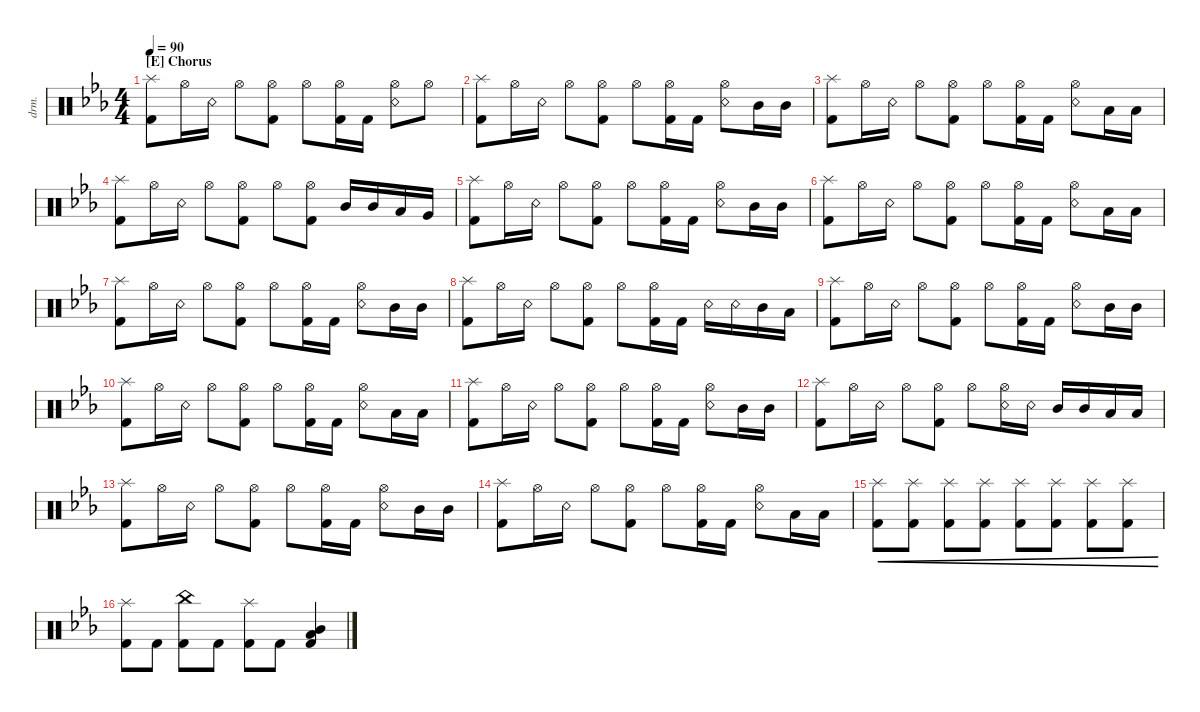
\defaultSystemsLayout 4
\hideDynamics
\bracketExtendMode nobrackets
\otherSystemsTrackNameOrientation horizontal
\track ("Drumkit" "drm.") {instrument percussion}
\staff {score}
\articulation defaults
\ts (4 4)
\section ("E" "Chorus")
\tempo 90
\clef neutral
\ks cminor
("Splash (hit)"{acc forcenatural} "Kick (hit) 2"{acc forcenatural}).8{dy ff beam Down} "Hi-Hat (open)"{acc forcenatural}.16{beam Down} "Snare (rim shot)"{acc forcenatural}.16{beam Down} "Hi-Hat (open)"{acc forcenatural}.8{beam Down} ("Hi-Hat (open)"{acc forcenatural} "Kick (hit) 2"{acc forcenatural}).8{beam Down} "Hi-Hat (open)"{acc forcenatural}.8{beam Down} ("Hi-Hat (open)"{acc forcenatural} "Kick (hit) 2"{acc forcenatural}).16{beam Down} "Kick (hit) 2"{acc forcenatural}.16{beam Down} ("Hi-Hat (open)"{acc forcenatural} "Snare (rim shot)"{acc forcenatural}).8{beam Down} "Hi-Hat (open)"{acc forcenatural}.8{beam Down} |
("Splash (hit)"{acc forcenatural} "Kick (hit) 2"{acc forcenatural}).8{beam Down} "Hi-Hat (open)"{acc forcenatural}.16{beam Down} "Snare (rim shot)"{acc forcenatural}.16{beam Down} "Hi-Hat (open)"{acc forcenatural}.8{beam Down} ("Hi-Hat (open)"{acc forcenatural} "Kick (hit) 2"{acc forcenatural}).8{beam Down} "Hi-Hat (open)"{acc forcenatural}.8{beam Down} ("Hi-Hat (open)"{acc forcenatural} "Kick (hit) 2"{acc forcenatural}).16{beam Down} "Kick (hit) 2"{acc forcenatural}.16{beam Down} ("Hi-Hat (open)"{acc forcenatural} "Snare (rim shot)"{acc forcenatural}).8{beam Down} "Mid Tom (hit)"{acc forcenatural}.16{beam Down} "Mid Tom (hit)"{acc forcenatural}.16{beam Down} |
("Splash (hit)"{acc forcenatural} "Kick (hit) 2"{acc forcenatural}).8{beam Down} "Hi-Hat (open)"{acc forcenatural}.16{beam Down} "Snare (rim shot)"{acc forcenatural}.16{beam Down} "Hi-Hat (open)"{acc forcenatural}.8{beam Down} ("Hi-Hat (open)"{acc forcenatural} "Kick (hit) 2"{acc forcenatural}).8{beam Down} "Hi-Hat (open)"{acc forcenatural}.8{beam Down} ("Hi-Hat (open)"{acc forcenatural} "Kick (hit) 2"{acc forcenatural}).16{beam Down} "Kick (hit) 2"{acc forcenatural}.16{beam Down} ("Hi-Hat (open)"{acc forcenatural} "Snare (rim shot)"{acc forcenatural}).8{beam Down} "Low Tom (hit)"{acc forcenatural}.16{beam Down} "Low Tom (hit)"{acc forcenatural}.16{beam Down} |
("Splash (hit)"{acc forcenatural} "Kick (hit) 2"{acc forcenatural}).8{beam Down} "Hi-Hat (open)"{acc forcenatural}.16{beam Down} "Snare (rim shot)"{acc forcenatural}.16{beam Down} "Hi-Hat (open)"{acc forcenatural}.8{beam Down} ("Hi-Hat (open)"{acc forcenatural} "Kick (hit) 2"{acc forcenatural}).8{beam Down} "Hi-Hat (open)"{acc forcenatural}.8{beam Down} ("Hi-Hat (open)"{acc forcenatural} "Kick (hit) 2"{acc forcenatural}).8{beam Down} "Mid Tom (hit)"{acc forcenatural}.16{beam Up} "Mid Tom (hit)"{acc forcenatural}.16{beam Up} "Low Tom (hit)"{acc forcenatural}.16{beam Up} "Very Low Tom (hit)"{acc forcenatural}.16{beam Up} |
("Splash (hit)"{acc forcenatural} "Kick (hit) 2"{acc forcenatural}).8{beam Down} "Hi-Hat (open)"{acc forcenatural}.16{beam Down} "Snare (rim shot)"{acc forcenatural}.16{beam Down} "Hi-Hat (open)"{acc forcenatural}.8{beam Down} ("Hi-Hat (open)"{acc forcenatural} "Kick (hit) 2"{acc forcenatural}).8{beam Down} "Hi-Hat (open)"{acc forcenatural}.8{beam Down} ("Hi-Hat (open)"{acc forcenatural} "Kick (hit) 2"{acc forcenatural}).16{beam Down} "Kick (hit) 2"{acc forcenatural}.16{beam Down} ("Hi-Hat (open)"{acc forcenatural} "Snare (rim shot)"{acc forcenatural}).8{beam Down} "Mid Tom (hit)"{acc forcenatural}.16{beam Down} "Mid Tom (hit)"{acc forcenatural}.16{beam Down} |
("Splash (hit)"{acc forcenatural} "Kick (hit) 2"{acc forcenatural}).8{beam Down} "Hi-Hat (open)"{acc forcenatural}.16{beam Down} "Snare (rim shot)"{acc forcenatural}.16{beam Down} "Hi-Hat (open)"{acc forcenatural}.8{beam Down} ("Hi-Hat (open)"{acc forcenatural} "Kick (hit) 2"{acc forcenatural}).8{beam Down} "Hi-Hat (open)"{acc forcenatural}.8{beam Down} ("Hi-Hat (open)"{acc forcenatural} "Kick (hit) 2"{acc forcenatural}).16{beam Down} "Kick (hit) 2"{acc forcenatural}.16{beam Down} ("Hi-Hat (open)"{acc forcenatural} "Snare (rim shot)"{acc forcenatural}).8{beam Down} "Low Tom (hit)"{acc forcenatural}.16{beam Down} "Low Tom (hit)"{acc forcenatural}.16{beam Down} |
("Splash (hit)"{acc forcenatural} "Kick (hit) 2"{acc forcenatural}).8{beam Down} "Hi-Hat (open)"{acc forcenatural}.16{beam Down} "Snare (rim shot)"{acc forcenatural}.16{beam Down} "Hi-Hat (open)"{acc forcenatural}.8{beam Down} ("Hi-Hat (open)"{acc forcenatural} "Kick (hit) 2"{acc forcenatural}).8{beam Down} "Hi-Hat (open)"{acc forcenatural}.8{beam Down} ("Hi-Hat (open)"{acc forcenatural} "Kick (hit) 2"{acc forcenatural}).16{beam Down} "Kick (hit) 2"{acc forcenatural}.16{beam Down} ("Hi-Hat (open)"{acc forcenatural} "Snare (rim shot)"{acc forcenatural}).8{beam Down} "Mid Tom (hit)"{acc forcenatural}.16{beam Down} "Mid Tom (hit)"{acc forcenatural}.16{beam Down} |
("Splash (hit)"{acc forcenatural} "Kick (hit) 2"{acc forcenatural}).8{beam Down} "Hi-Hat (open)"{acc forcenatural}.16{beam Down} "Snare (rim shot)"{acc forcenatural}.16{beam Down} "Hi-Hat (open)"{acc forcenatural}.8{beam Down} ("Hi-Hat (open)"{acc forcenatural} "Kick (hit) 2"{acc forcenatural}).8{beam Down} "Hi-Hat (open)"{acc forcenatural}.8{beam Down} ("Hi-Hat (open)"{acc forcenatural} "Kick (hit) 2"{acc forcenatural}).16{beam Down} "Kick (hit) 2"{acc forcenatural}.16{beam Down} "Snare (rim shot)"{acc forcenatural}.16{beam Down} "Snare (rim shot)"{acc forcenatural}.16{beam Down} "Mid Tom (hit)"{acc forcenatural}.16{beam Down} "Low Tom (hit)"{acc forcenatural}.16{beam Down} |
("Splash (hit)"{acc forcenatural} "Kick (hit) 2"{acc forcenatural}).8{beam Down} "Hi-Hat (open)"{acc forcenatural}.16{beam Down} "Snare (rim shot)"{acc forcenatural}.16{beam Down} "Hi-Hat (open)"{acc forcenatural}.8{beam Down} ("Hi-Hat (open)"{acc forcenatural} "Kick (hit) 2"{acc forcenatural}).8{beam Down} "Hi-Hat (open)"{acc forcenatural}.8{beam Down} ("Hi-Hat (open)"{acc forcenatural} "Kick (hit) 2"{acc forcenatural}).16{beam Down} "Kick (hit) 2"{acc forcenatural}.16{beam Down} ("Hi-Hat (open)"{acc forcenatural} "Snare (rim shot)"{acc forcenatural}).8{beam Down} "Mid Tom (hit)"{acc forcenatural}.16{beam Down} "Mid Tom (hit)"{acc forcenatural}.16{beam Down} |
("Splash (hit)"{acc forcenatural} "Kick (hit) 2"{acc forcenatural}).8{beam Down} "Hi-Hat (open)"{acc forcenatural}.16{beam Down} "Snare (rim shot)"{acc forcenatural}.16{beam Down} "Hi-Hat (open)"{acc forcenatural}.8{beam Down} ("Hi-Hat (open)"{acc forcenatural} "Kick (hit) 2"{acc forcenatural}).8{beam Down} "Hi-Hat (open)"{acc forcenatural}.8{beam Down} ("Hi-Hat (open)"{acc forcenatural} "Kick (hit) 2"{acc forcenatural}).16{beam Down} "Kick (hit) 2"{acc forcenatural}.16{beam Down} ("Hi-Hat (open)"{acc forcenatural} "Snare (rim shot)"{acc forcenatural}).8{beam Down} "Low Tom (hit)"{acc forcenatural}.16{beam Down} "Low Tom (hit)"{acc forcenatural}.16{beam Down} |
("Splash (hit)"{acc forcenatural} "Kick (hit) 2"{acc forcenatural}).8{beam Down} "Hi-Hat (open)"{acc forcenatural}.16{beam Down} "Snare (rim shot)"{acc forcenatural}.16{beam Down} "Hi-Hat (open)"{acc forcenatural}.8{beam Down} ("Hi-Hat (open)"{acc forcenatural} "Kick (hit) 2"{acc forcenatural}).8{beam Down} "Hi-Hat (open)"{acc forcenatural}.8{beam Down} ("Hi-Hat (open)"{acc forcenatural} "Kick (hit) 2"{acc forcenatural}).16{beam Down} "Kick (hit) 2"{acc forcenatural}.16{beam Down} ("Hi-Hat (open)"{acc forcenatural} "Snare (rim shot)"{acc forcenatural}).8{beam Down} "Mid Tom (hit)"{acc forcenatural}.16{beam Down} "Mid Tom (hit)"{acc forcenatural}.16{beam Down} |
("Splash (hit)"{acc forcenatural} "Kick (hit) 2"{acc forcenatural}).8{beam Down} "Hi-Hat (open)"{acc forcenatural}.16{beam Down} "Snare (rim shot)"{acc forcenatural}.16{beam Down} "Hi-Hat (open)"{acc forcenatural}.8{beam Down} ("Hi-Hat (open)"{acc forcenatural} "Kick (hit) 2"{acc forcenatural}).8{beam Down} "Hi-Hat (open)"{acc forcenatural}.8{beam Down} ("Hi-Hat (open)"{acc forcenatural} "Snare (rim shot)"{acc forcenatural}).16{beam Down} "Snare (rim shot)"{acc forcenatural}.16{beam Down} "Mid Tom (hit)"{acc forcenatural}.16{beam Up} "Mid Tom (hit)"{acc forcenatural}.16{beam Up} "Low Tom (hit)"{acc forcenatural}.16{beam Up} "Low Tom (hit)"{acc forcenatural}.16{beam Up} |
("Splash (hit)"{acc forcenatural} "Kick (hit) 2"{acc forcenatural}).8{beam Down} "Hi-Hat (open)"{acc forcenatural}.16{beam Down} "Snare (rim shot)"{acc forcenatural}.16{beam Down} "Hi-Hat (open)"{acc forcenatural}.8{beam Down} ("Hi-Hat (open)"{acc forcenatural} "Kick (hit) 2"{acc forcenatural}).8{beam Down} "Hi-Hat (open)"{acc forcenatural}.8{beam Down} ("Hi-Hat (open)"{acc forcenatural} "Kick (hit) 2"{acc forcenatural}).16{beam Down} "Kick (hit) 2"{acc forcenatural}.16{beam Down} ("Hi-Hat (open)"{acc forcenatural} "Snare (rim shot)"{acc forcenatural}).8{beam Down} "Mid Tom (hit)"{acc forcenatural}.16{beam Down} "Mid Tom (hit)"{acc forcenatural}.16{beam Down} |
("Splash (hit)"{acc forcenatural} "Kick (hit) 2"{acc forcenatural}).8{beam Down} "Hi-Hat (open)"{acc forcenatural}.16{beam Down} "Snare (rim shot)"{acc forcenatural}.16{beam Down} "Hi-Hat (open)"{acc forcenatural}.8{beam Down} ("Hi-Hat (open)"{acc forcenatural} "Kick (hit) 2"{acc forcenatural}).8{beam Down} "Hi-Hat (open)"{acc forcenatural}.8{beam Down} ("Hi-Hat (open)"{acc forcenatural} "Kick (hit) 2"{acc forcenatural}).16{beam Down} "Kick (hit) 2"{acc forcenatural}.16{beam Down} ("Hi-Hat (open)"{acc forcenatural} "Snare (rim shot)"{acc forcenatural}).8{beam Down} "Low Tom (hit)"{acc forcenatural}.16{beam Down} "Low Tom (hit)"{acc forcenatural}.16{beam Down} |
("Kick (hit) 2"{acc forcenatural} "Splash (hit)"{acc forcenatural}).8{cre dy mf beam Down} ("Kick (hit) 2"{acc forcenatural} "Splash (hit)"{acc forcenatural}).8{cre beam Down} ("Kick (hit) 2"{acc forcenatural} "Splash (hit)"{acc forcenatural}).8{cre beam Down} ("Kick (hit) 2"{acc forcenatural} "Splash (hit)"{acc forcenatural}).8{cre beam Down} ("Kick (hit) 2"{acc forcenatural} "Splash (hit)"{acc forcenatural}).8{cre dy f beam Down} ("Kick (hit) 2"{acc forcenatural} "Splash (hit)"{acc forcenatural}).8{cre beam Down} ("Kick (hit) 2"{acc forcenatural} "Splash (hit)"{acc forcenatural}).8{cre dy ff beam Down} ("Kick (hit) 2"{acc forcenatural} "Splash (hit)"{acc forcenatural}).8{cre beam Down} |
("Kick (hit) 2"{acc forcenatural} "Splash (hit)"{acc forcenatural}).8{dy f beam Down} "Kick (hit) 2"{acc forcenatural}.8{beam Down} ("Kick (hit) 2"{acc forcenatural} "China (hit)"{acc forcenatural}).8{beam Down} "Kick (hit) 2"{acc forcenatural}.8{beam Down} ("Kick (hit) 2"{acc forcenatural} "Splash (hit)"{acc forcenatural}).8{beam Down} "Kick (hit) 2"{acc forcenatural}.8{beam Down} ("Kick (hit) 2"{acc forcenatural} "Mid Tom (hit)"{acc forcenatural} "Low Tom (hit)"{acc forcenatural}).4{beam Up}
